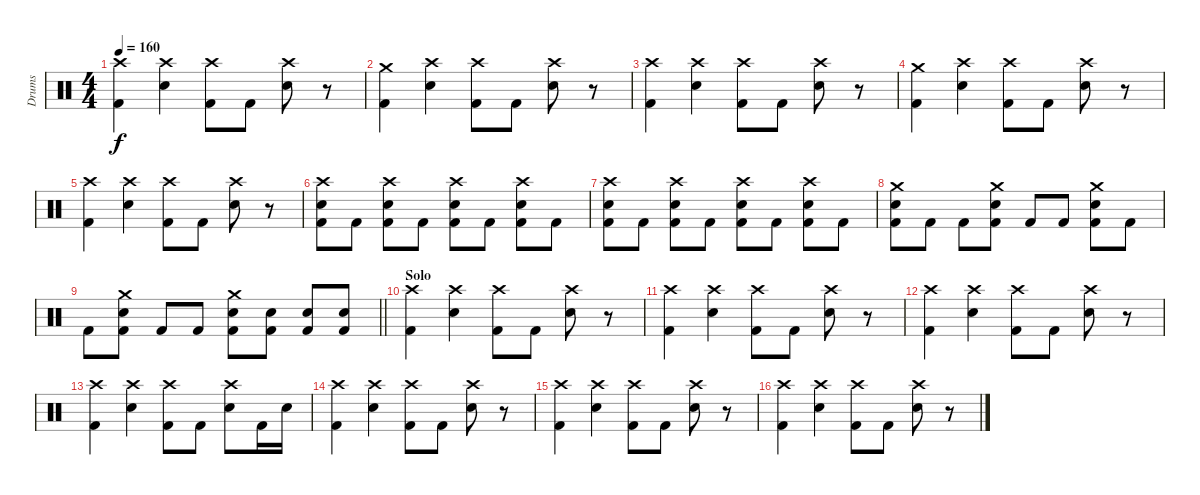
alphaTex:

\track ("Drums" "Drums") {instrument percussion}
\staff {score}
\articulation defaults
\ts (4 4)
\tempo 160
\clef neutral
\ks c
("Crash high (hit)" "Kick (hit) 2").4{dy f} ("Crash high (hit)" "Electric Snare (hit)").4 ("Crash high (hit)" "Kick (hit) 2").8 "Kick (hit) 2".8 ("Crash high (hit)" "Electric Snare (hit)").8 r.8 |
("Crash medium (hit)" "Kick (hit) 2").4 ("Crash high (hit)" "Electric Snare (hit)").4 ("Crash high (hit)" "Kick (hit) 2").8 "Kick (hit) 2".8 ("Crash high (hit)" "Electric Snare (hit)").8 r.8 |
("Crash high (hit)" "Kick (hit) 2").4 ("Crash high (hit)" "Electric Snare (hit)").4 ("Crash high (hit)" "Kick (hit) 2").8 "Kick (hit) 2".8 ("Crash high (hit)" "Electric Snare (hit)").8 r.8 |
("Crash medium (hit)" "Kick (hit) 2").4 ("Crash high (hit)" "Electric Snare (hit)").4 ("Crash high (hit)" "Kick (hit) 2").8 "Kick (hit) 2".8 ("Crash high (hit)" "Electric Snare (hit)").8 r.8 |
("Crash high (hit)" "Kick (hit) 2").4 ("Crash high (hit)" "Electric Snare (hit)").4 ("Crash high (hit)" "Kick (hit) 2").8 "Kick (hit) 2".8 ("Crash high (hit)" "Electric Snare (hit)").8 r.8 |
("Crash high (hit)" "Electric Snare (hit)" "Kick (hit) 2").8 "Kick (hit) 2".8 ("Crash high (hit)" "Electric Snare (hit)" "Kick (hit) 2").8 "Kick (hit) 2".8 ("Crash high (hit)" "Electric Snare (hit)" "Kick (hit) 2").8 "Kick (hit) 2".8 ("Crash high (hit)" "Electric Snare (hit)" "Kick (hit) 2").8 "Kick (hit) 2".8 |
("Crash high (hit)" "Electric Snare (hit)" "Kick (hit) 2").8 "Kick (hit) 2".8 ("Crash high (hit)" "Electric Snare (hit)" "Kick (hit) 2").8 "Kick (hit) 2".8 ("Crash high (hit)" "Electric Snare (hit)" "Kick (hit) 2").8 "Kick (hit) 2".8 ("Crash high (hit)" "Electric Snare (hit)" "Kick (hit) 2").8 "Kick (hit) 2".8 |
("Crash medium (hit)" "Electric Snare (hit)" "Kick (hit) 2").8 "Kick (hit) 2".8 "Kick (hit) 2".8 ("Crash medium (hit)" "Electric Snare (hit)" "Kick (hit) 2").8 "Kick (hit) 2".8 "Kick (hit) 2".8 ("Crash medium (hit)" "Electric Snare (hit)" "Kick (hit) 2").8 "Kick (hit) 2".8 |
\barLineRight lightlight "Kick (hit) 2".8
("Crash medium (hit)" "Electric Snare (hit)" "Kick (hit) 2").8 "Kick (hit) 2".8 "Kick (hit) 2".8 ("Crash medium (hit)" "Electric Snare (hit)" "Kick (hit) 2").8 ("Electric Snare (hit)" "Kick (hit) 2").8 ("Electric Snare (hit)" "Kick (hit) 2").8 ("Electric Snare (hit)" "Kick (hit) 2").8 |
\section ("" "Solo")
("Crash high (hit)" "Kick (hit) 2").4 ("Crash high (hit)" "Electric Snare (hit)").4 ("Crash high (hit)" "Kick (hit) 2").8 "Kick (hit) 2".8 ("Crash high (hit)" "Electric Snare (hit)").8 r.8 |
("Crash high (hit)" "Kick (hit) 2").4 ("Crash high (hit)" "Electric Snare (hit)").4 ("Crash high (hit)" "Kick (hit) 2").8 "Kick (hit) 2".8 ("Crash high (hit)" "Electric Snare (hit)").8 r.8 |
("Crash high (hit)" "Kick (hit) 2").4 ("Crash high (hit)" "Electric Snare (hit)").4 ("Crash high (hit)" "Kick (hit) 2").8 "Kick (hit) 2".8 ("Crash high (hit)" "Electric Snare (hit)").8 r.8 |
("Crash high (hit)" "Kick (hit) 2").4 ("Crash high (hit)" "Electric Snare (hit)").4 ("Crash high (hit)" "Kick (hit) 2").8 "Kick (hit) 2".8 ("Crash high (hit)" "Electric Snare (hit)").8 "Kick (hit) 2".16 "Electric Snare (hit)".16 |
("Crash high (hit)" "Kick (hit) 2").4 ("Crash high (hit)" "Electric Snare (hit)").4 ("Crash high (hit)" "Kick (hit) 2").8 "Kick (hit) 2".8 ("Crash high (hit)" "Electric Snare (hit)").8 r.8 |
("Crash high (hit)" "Kick (hit) 2").4 ("Crash high (hit)" "Electric Snare (hit)").4 ("Crash high (hit)" "Kick (hit) 2").8 "Kick (hit) 2".8 ("Crash high (hit)" "Electric Snare (hit)").8 r.8 |
("Crash high (hit)" "Kick (hit) 2").4 ("Crash high (hit)" "Electric Snare (hit)").4 ("Crash high (hit)" "Kick (hit) 2").8 "Kick (hit) 2".8 ("Crash high (hit)" "Electric Snare (hit)").8 r.8
